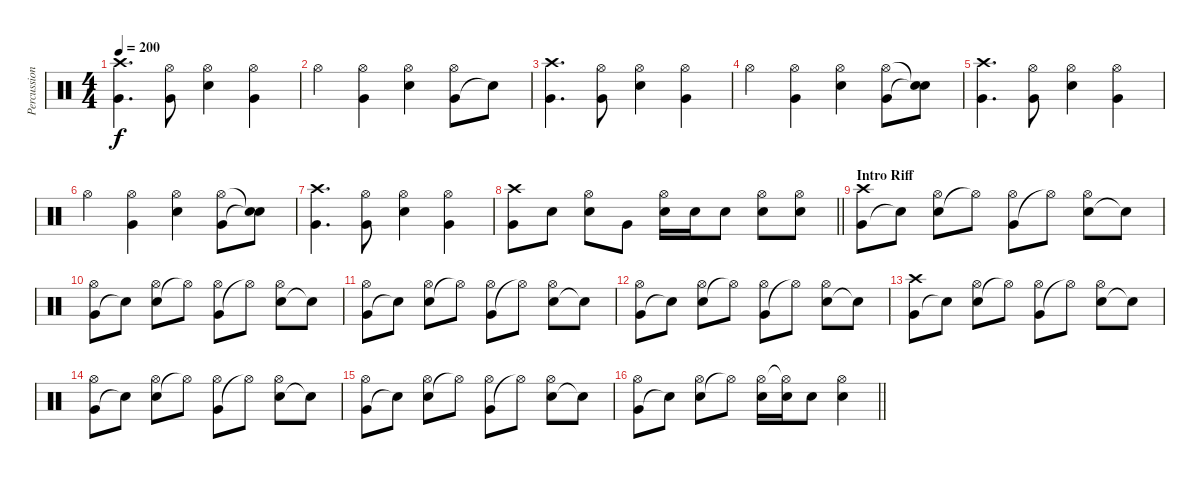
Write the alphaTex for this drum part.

\track ("Percussion" "Percussion") {instrument percussion}
\staff {score}
\articulation defaults
\ts (4 4)
\tempo 200
\clef neutral
\ks c
("Very Low Tom (hit)" "Crash high (hit)").4{d dy f} ("Very Low Tom (hit)" "Hi-Hat (open)").8 ("Snare (hit) 2" "Hi-Hat (open)").4 ("Very Low Tom (hit)" "Hi-Hat (open)").4 |
"Hi-Hat (open)".4 ("Very Low Tom (hit)" "Hi-Hat (open)").4 ("Snare (hit) 2" "Hi-Hat (open)").4 ("Very Low Tom (hit)" "Hi-Hat (open)").8 "Snare (hit)"{t}.8 |
("Very Low Tom (hit)" "Crash high (hit)").4{d} ("Very Low Tom (hit)" "Hi-Hat (open)").8 ("Snare (hit) 2" "Hi-Hat (open)").4 ("Very Low Tom (hit)" "Hi-Hat (open)").4 |
"Hi-Hat (open)".4 ("Very Low Tom (hit)" "Hi-Hat (open)").4 ("Snare (hit) 2" "Hi-Hat (open)").4 ("Very Low Tom (hit)" "Hi-Hat (open)").8 ("Snare (hit)"{t} "Snare (hit)"{t}).8 |
("Very Low Tom (hit)" "Crash high (hit)").4{d} ("Very Low Tom (hit)" "Hi-Hat (open)").8 ("Snare (hit) 2" "Hi-Hat (open)").4 ("Very Low Tom (hit)" "Hi-Hat (open)").4 |
"Hi-Hat (open)".4 ("Very Low Tom (hit)" "Hi-Hat (open)").4 ("Snare (hit) 2" "Hi-Hat (open)").4 ("Very Low Tom (hit)" "Hi-Hat (open)").8 ("Snare (hit)"{t} "Snare (hit)"{t}).8 |
("Very Low Tom (hit)" "Crash high (hit)").4{d} ("Very Low Tom (hit)" "Hi-Hat (open)").8 ("Snare (hit) 2" "Hi-Hat (open)").4 ("Very Low Tom (hit)" "Hi-Hat (open)").4 |
\barLineRight lightlight
("Very Low Tom (hit)" "Crash high (hit)").8 "Electric Snare (hit)".8 ("Electric Snare (hit)" "Hi-Hat (open)").8 "Very Low Tom (hit)".8 ("Electric Snare (hit)" "Hi-Hat (open)").16 "Electric Snare (hit)".16 "Electric Snare (hit)".8 ("Electric Snare (hit)" "Hi-Hat (open)").8 ("Snare (hit) 2" "Hi-Hat (open)").8 |
\section ("" "Intro Riff")
("Very Low Tom (hit)" "Crash high (hit)").8 "Snare (hit)"{t}.8 ("Snare (hit) 2" "Hi-Hat (open)").8 "Hi-Hat (open)"{t}.8 ("Very Low Tom (hit)" "Hi-Hat (open)").8 "Hi-Hat (open)"{t}.8 ("Snare (hit) 2" "Hi-Hat (open)").8 "Snare (hit)"{t}.8 |
("Very Low Tom (hit)" "Hi-Hat (open)").8 "Snare (hit)"{t}.8 ("Snare (hit) 2" "Hi-Hat (open)").8 "Hi-Hat (open)"{t}.8 ("Very Low Tom (hit)" "Hi-Hat (open)").8 "Hi-Hat (open)"{t}.8 ("Snare (hit) 2" "Hi-Hat (open)").8 "Snare (hit)"{t}.8 |
("Very Low Tom (hit)" "Hi-Hat (open)").8 "Snare (hit)"{t}.8 ("Snare (hit) 2" "Hi-Hat (open)").8 "Hi-Hat (open)"{t}.8 ("Very Low Tom (hit)" "Hi-Hat (open)").8 "Hi-Hat (open)"{t}.8 ("Snare (hit) 2" "Hi-Hat (open)").8 "Snare (hit)"{t}.8 |
("Very Low Tom (hit)" "Hi-Hat (open)").8 "Snare (hit)"{t}.8 ("Snare (hit) 2" "Hi-Hat (open)").8 "Hi-Hat (open)"{t}.8 ("Very Low Tom (hit)" "Hi-Hat (open)").8 "Hi-Hat (open)"{t}.8 ("Snare (hit) 2" "Hi-Hat (open)").8 "Snare (hit)"{t}.8 |
("Very Low Tom (hit)" "Crash high (hit)").8 "Snare (hit)"{t}.8 ("Snare (hit) 2" "Hi-Hat (open)").8 "Hi-Hat (open)"{t}.8 ("Very Low Tom (hit)" "Hi-Hat (open)").8 "Hi-Hat (open)"{t}.8 ("Snare (hit) 2" "Hi-Hat (open)").8 "Snare (hit)"{t}.8 |
("Very Low Tom (hit)" "Hi-Hat (open)").8 "Snare (hit)"{t}.8 ("Snare (hit) 2" "Hi-Hat (open)").8 "Hi-Hat (open)"{t}.8 ("Very Low Tom (hit)" "Hi-Hat (open)").8 "Hi-Hat (open)"{t}.8 ("Snare (hit) 2" "Hi-Hat (open)").8 "Snare (hit)"{t}.8 |
("Very Low Tom (hit)" "Hi-Hat (open)").8 "Snare (hit)"{t}.8 ("Snare (hit) 2" "Hi-Hat (open)").8 "Hi-Hat (open)"{t}.8 ("Very Low Tom (hit)" "Hi-Hat (open)").8 "Hi-Hat (open)"{t}.8 ("Snare (hit) 2" "Hi-Hat (open)").8 "Snare (hit)"{t}.8 |
\barLineRight lightlight
("Very Low Tom (hit)" "Hi-Hat (open)").8 "Snare (hit)"{t}.8 ("Snare (hit) 2" "Hi-Hat (open)").8 "Hi-Hat (open)"{t}.8 ("Electric Snare (hit)" "Hi-Hat (open)").16 ("Electric Snare (hit)" "Hi-Hat (open)"{t}).16 "Electric Snare (hit)".8 ("Snare (hit) 2" "Hi-Hat (open)").4
